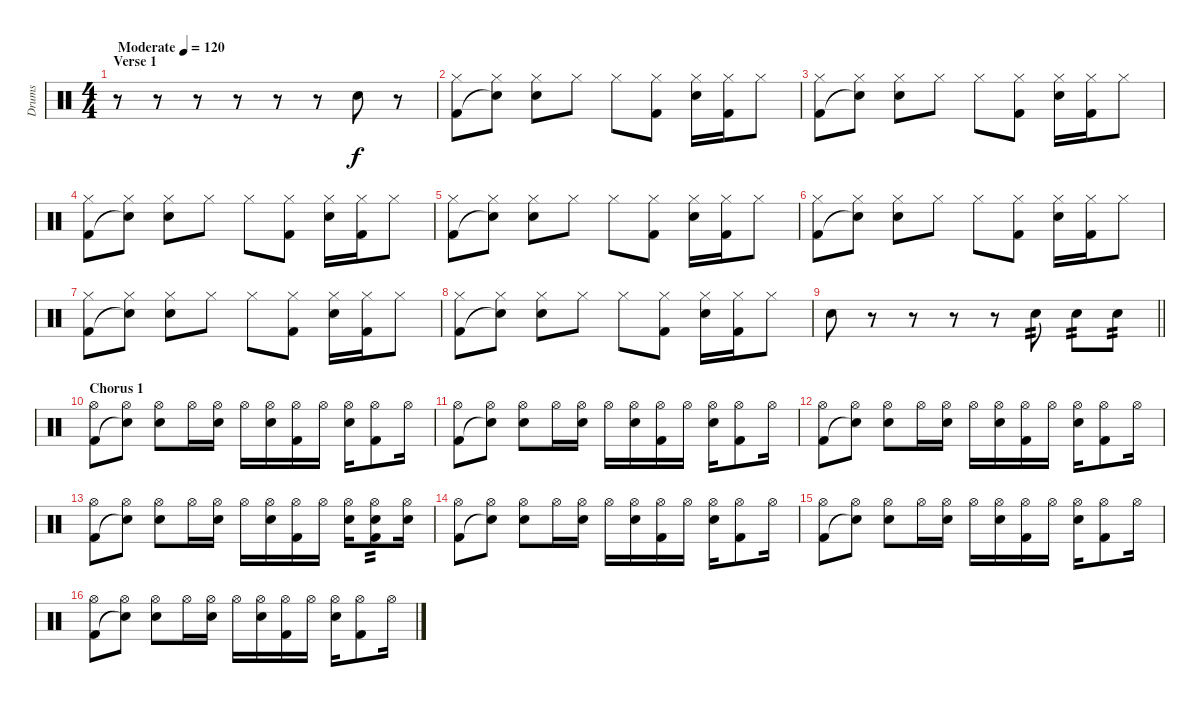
\track ("Drums" "Drums") {instrument percussion}
\staff {score}
\articulation defaults
\ts (4 4)
\section ("" "Verse 1")
\tempo (120 "Moderate")
\clef neutral
\ks c
r.8{dy f} r.8 r.8 r.8 r.8 r.8 "Electric Snare (hit)".8 r.8 |
("Hi-Hat (closed)" "Kick (hit) 2").8 ("Hi-Hat (closed)" "Snare (hit)"{t}).8 ("Hi-Hat (closed)" "Electric Snare (hit)").8 "Hi-Hat (closed)".8 "Hi-Hat (closed)".8 ("Hi-Hat (closed)" "Kick (hit) 2").8 ("Hi-Hat (closed)" "Electric Snare (hit)").16 ("Hi-Hat (closed)" "Kick (hit) 2").16 "Hi-Hat (closed)".8 |
("Hi-Hat (closed)" "Kick (hit) 2").8 ("Hi-Hat (closed)" "Snare (hit)"{t}).8 ("Hi-Hat (closed)" "Electric Snare (hit)").8 "Hi-Hat (closed)".8 "Hi-Hat (closed)".8 ("Hi-Hat (closed)" "Kick (hit) 2").8 ("Hi-Hat (closed)" "Electric Snare (hit)").16 ("Hi-Hat (closed)" "Kick (hit) 2").16 "Hi-Hat (closed)".8 |
("Hi-Hat (closed)" "Kick (hit) 2").8 ("Hi-Hat (closed)" "Snare (hit)"{t}).8 ("Hi-Hat (closed)" "Electric Snare (hit)").8 "Hi-Hat (closed)".8 "Hi-Hat (closed)".8 ("Hi-Hat (closed)" "Kick (hit) 2").8 ("Hi-Hat (closed)" "Electric Snare (hit)").16 ("Hi-Hat (closed)" "Kick (hit) 2").16 "Hi-Hat (closed)".8 |
("Hi-Hat (closed)" "Kick (hit) 2").8 ("Hi-Hat (closed)" "Snare (hit)"{t}).8 ("Hi-Hat (closed)" "Electric Snare (hit)").8 "Hi-Hat (closed)".8 "Hi-Hat (closed)".8 ("Hi-Hat (closed)" "Kick (hit) 2").8 ("Hi-Hat (closed)" "Electric Snare (hit)").16 ("Hi-Hat (closed)" "Kick (hit) 2").16 "Hi-Hat (closed)".8 |
("Hi-Hat (closed)" "Kick (hit) 2").8 ("Hi-Hat (closed)" "Snare (hit)"{t}).8 ("Hi-Hat (closed)" "Electric Snare (hit)").8 "Hi-Hat (closed)".8 "Hi-Hat (closed)".8 ("Hi-Hat (closed)" "Kick (hit) 2").8 ("Hi-Hat (closed)" "Electric Snare (hit)").16 ("Hi-Hat (closed)" "Kick (hit) 2").16 "Hi-Hat (closed)".8 |
("Hi-Hat (closed)" "Kick (hit) 2").8 ("Hi-Hat (closed)" "Snare (hit)"{t}).8 ("Hi-Hat (closed)" "Electric Snare (hit)").8 "Hi-Hat (closed)".8 "Hi-Hat (closed)".8 ("Hi-Hat (closed)" "Kick (hit) 2").8 ("Hi-Hat (closed)" "Electric Snare (hit)").16 ("Hi-Hat (closed)" "Kick (hit) 2").16 "Hi-Hat (closed)".8 |
("Hi-Hat (closed)" "Kick (hit) 2").8 ("Hi-Hat (closed)" "Snare (hit)"{t}).8 ("Hi-Hat (closed)" "Electric Snare (hit)").8 "Hi-Hat (closed)".8 "Hi-Hat (closed)".8 ("Hi-Hat (closed)" "Kick (hit) 2").8 ("Hi-Hat (closed)" "Electric Snare (hit)").16 ("Hi-Hat (closed)" "Kick (hit) 2").16 "Hi-Hat (closed)".8 |
\barLineRight lightlight "Electric Snare (hit)".8
r.8 r.8 r.8 r.8 "Electric Snare (hit)".8{tp 2} "Electric Snare (hit)".8{tp 2} "Electric Snare (hit)".8{tp 2} |
\section ("" "Chorus 1")
("Hi-Hat (open)" "Kick (hit) 2").8 ("Hi-Hat (open)" "Snare (hit)"{t}).8 ("Hi-Hat (open)" "Electric Snare (hit)").8 "Hi-Hat (open)".16 ("Hi-Hat (open)" "Electric Snare (hit)").16 "Hi-Hat (open)".16 ("Hi-Hat (open)" "Electric Snare (hit)").16 ("Hi-Hat (open)" "Kick (hit) 2").16 "Hi-Hat (open)".16 ("Hi-Hat (open)" "Electric Snare (hit)").16 ("Hi-Hat (open)" "Kick (hit) 2").8 "Hi-Hat (open)".16 |
("Hi-Hat (open)" "Kick (hit) 2").8 ("Hi-Hat (open)" "Snare (hit)"{t}).8 ("Hi-Hat (open)" "Electric Snare (hit)").8 "Hi-Hat (open)".16 ("Hi-Hat (open)" "Electric Snare (hit)").16 "Hi-Hat (open)".16 ("Hi-Hat (open)" "Electric Snare (hit)").16 ("Hi-Hat (open)" "Kick (hit) 2").16 "Hi-Hat (open)".16 ("Hi-Hat (open)" "Electric Snare (hit)").16 ("Hi-Hat (open)" "Kick (hit) 2").8 "Hi-Hat (open)".16 |
("Hi-Hat (open)" "Kick (hit) 2").8 ("Hi-Hat (open)" "Snare (hit)"{t}).8 ("Hi-Hat (open)" "Electric Snare (hit)").8 "Hi-Hat (open)".16 ("Hi-Hat (open)" "Electric Snare (hit)").16 "Hi-Hat (open)".16 ("Hi-Hat (open)" "Electric Snare (hit)").16 ("Hi-Hat (open)" "Kick (hit) 2").16 "Hi-Hat (open)".16 ("Hi-Hat (open)" "Electric Snare (hit)").16 ("Hi-Hat (open)" "Kick (hit) 2").8 "Hi-Hat (open)".16 |
("Hi-Hat (open)" "Kick (hit) 2").8 ("Hi-Hat (open)" "Snare (hit)"{t}).8 ("Hi-Hat (open)" "Electric Snare (hit)").8 "Hi-Hat (open)".16 ("Hi-Hat (open)" "Electric Snare (hit)").16 "Hi-Hat (open)".16 ("Hi-Hat (open)" "Electric Snare (hit)").16 ("Hi-Hat (open)" "Kick (hit) 2").16 "Hi-Hat (open)".16 ("Hi-Hat (open)" "Electric Snare (hit)").16 ("Hi-Hat (open)" "Electric Snare (hit)" "Kick (hit) 2").8{tp 2} ("Hi-Hat (open)" "Electric Snare (hit)").16 |
("Hi-Hat (open)" "Kick (hit) 2").8 ("Hi-Hat (open)" "Snare (hit)"{t}).8 ("Hi-Hat (open)" "Electric Snare (hit)").8 "Hi-Hat (open)".16 ("Hi-Hat (open)" "Electric Snare (hit)").16 "Hi-Hat (open)".16 ("Hi-Hat (open)" "Electric Snare (hit)").16 ("Hi-Hat (open)" "Kick (hit) 2").16 "Hi-Hat (open)".16 ("Hi-Hat (open)" "Electric Snare (hit)").16 ("Hi-Hat (open)" "Kick (hit) 2").8 "Hi-Hat (open)".16 |
("Hi-Hat (open)" "Kick (hit) 2").8 ("Hi-Hat (open)" "Snare (hit)"{t}).8 ("Hi-Hat (open)" "Electric Snare (hit)").8 "Hi-Hat (open)".16 ("Hi-Hat (open)" "Electric Snare (hit)").16 "Hi-Hat (open)".16 ("Hi-Hat (open)" "Electric Snare (hit)").16 ("Hi-Hat (open)" "Kick (hit) 2").16 "Hi-Hat (open)".16 ("Hi-Hat (open)" "Electric Snare (hit)").16 ("Hi-Hat (open)" "Kick (hit) 2").8 "Hi-Hat (open)".16 |
("Hi-Hat (open)" "Kick (hit) 2").8 ("Hi-Hat (open)" "Snare (hit)"{t}).8 ("Hi-Hat (open)" "Electric Snare (hit)").8 "Hi-Hat (open)".16 ("Hi-Hat (open)" "Electric Snare (hit)").16 "Hi-Hat (open)".16 ("Hi-Hat (open)" "Electric Snare (hit)").16 ("Hi-Hat (open)" "Kick (hit) 2").16 "Hi-Hat (open)".16 ("Hi-Hat (open)" "Electric Snare (hit)").16 ("Hi-Hat (open)" "Kick (hit) 2").8 "Hi-Hat (open)".16
